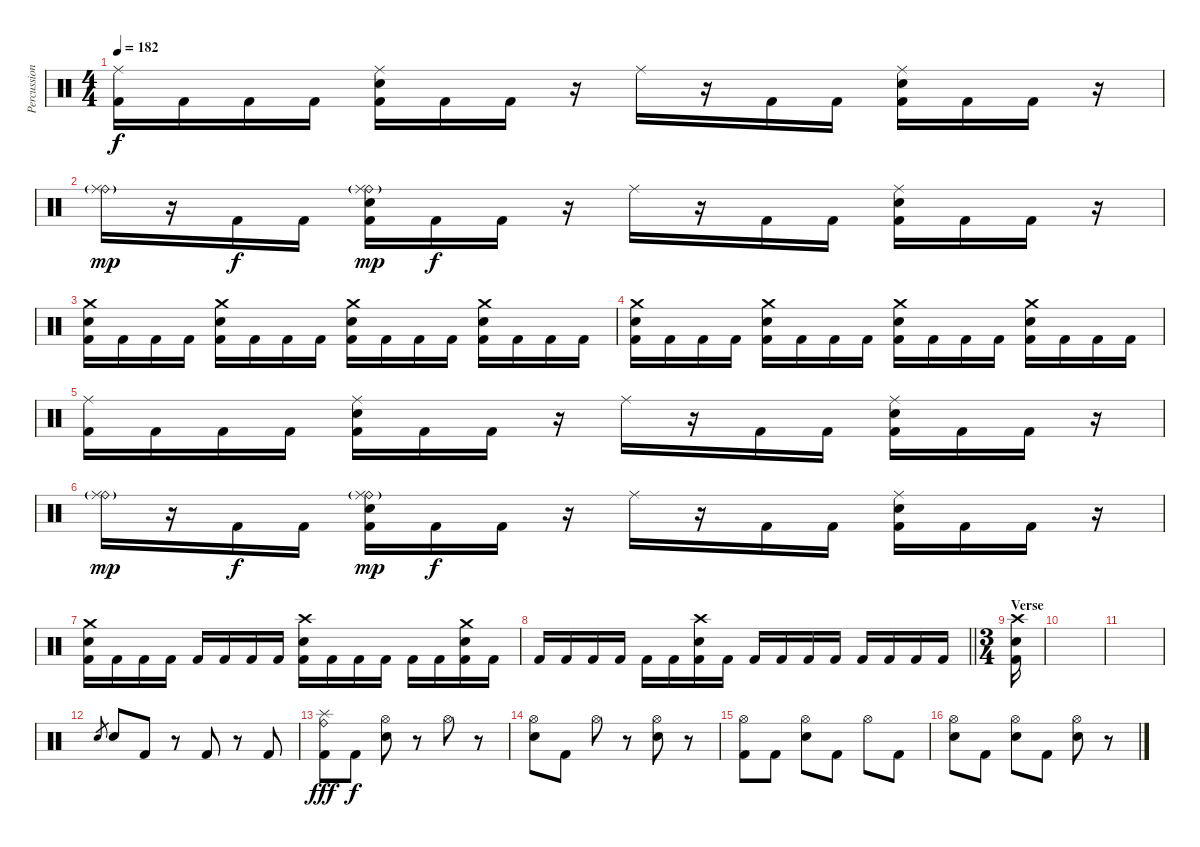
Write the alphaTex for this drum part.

\track ("Percussion" "Percussion") {instrument percussion}
\staff {score}
\articulation defaults
\ts (4 4)
\tempo 182
\clef neutral
\ks c
("Ride (middle)" "Kick (hit) 2").16{dy f} "Kick (hit) 2".16 "Kick (hit) 2".16 "Kick (hit) 2".16 ("Ride (middle)" "Electric Snare (hit)" "Kick (hit) 2").16 "Kick (hit) 2".16 "Kick (hit) 2".16 r.16 "Ride (middle)".16 r.16 "Kick (hit) 2".16 "Kick (hit) 2".16 ("Ride (middle)" "Electric Snare (hit)" "Kick (hit) 2").16 "Kick (hit) 2".16 "Kick (hit) 2".16 r.16 |
("Ride (bell)"{g} "Ride (middle)").16{dy mp} r.16 "Kick (hit) 2".16{dy f} "Kick (hit) 2".16 ("Ride (bell)"{g} "Ride (middle)" "Electric Snare (hit)" "Kick (hit) 2").16{dy mp} "Kick (hit) 2".16{dy f} "Kick (hit) 2".16 r.16 "Ride (middle)".16 r.16 "Kick (hit) 2".16 "Kick (hit) 2".16 ("Ride (middle)" "Electric Snare (hit)" "Kick (hit) 2").16 "Kick (hit) 2".16 "Kick (hit) 2".16 r.16 |
("Crash medium (hit)" "Electric Snare (hit)" "Kick (hit) 2").16 "Kick (hit) 2".16 "Kick (hit) 2".16 "Kick (hit) 2".16 ("Crash medium (hit)" "Electric Snare (hit)" "Kick (hit) 2").16 "Kick (hit) 2".16 "Kick (hit) 2".16 "Kick (hit) 2".16 ("Crash medium (hit)" "Electric Snare (hit)" "Kick (hit) 2").16 "Kick (hit) 2".16 "Kick (hit) 2".16 "Kick (hit) 2".16 ("Crash medium (hit)" "Electric Snare (hit)" "Kick (hit) 2").16 "Kick (hit) 2".16 "Kick (hit) 2".16 "Kick (hit) 2".16 |
("Crash medium (hit)" "Electric Snare (hit)" "Kick (hit) 2").16 "Kick (hit) 2".16 "Kick (hit) 2".16 "Kick (hit) 2".16 ("Crash medium (hit)" "Electric Snare (hit)" "Kick (hit) 2").16 "Kick (hit) 2".16 "Kick (hit) 2".16 "Kick (hit) 2".16 ("Crash medium (hit)" "Electric Snare (hit)" "Kick (hit) 2").16 "Kick (hit) 2".16 "Kick (hit) 2".16 "Kick (hit) 2".16 ("Crash medium (hit)" "Electric Snare (hit)" "Kick (hit) 2").16 "Kick (hit) 2".16 "Kick (hit) 2".16 "Kick (hit) 2".16 |
("Ride (middle)" "Kick (hit) 2").16 "Kick (hit) 2".16 "Kick (hit) 2".16 "Kick (hit) 2".16 ("Ride (middle)" "Electric Snare (hit)" "Kick (hit) 2").16 "Kick (hit) 2".16 "Kick (hit) 2".16 r.16 "Ride (middle)".16 r.16 "Kick (hit) 2".16 "Kick (hit) 2".16 ("Ride (middle)" "Electric Snare (hit)" "Kick (hit) 2").16 "Kick (hit) 2".16 "Kick (hit) 2".16 r.16 |
("Ride (bell)"{g} "Ride (middle)").16{dy mp} r.16 "Kick (hit) 2".16{dy f} "Kick (hit) 2".16 ("Ride (bell)"{g} "Ride (middle)" "Electric Snare (hit)" "Kick (hit) 2").16{dy mp} "Kick (hit) 2".16{dy f} "Kick (hit) 2".16 r.16 "Ride (middle)".16 r.16 "Kick (hit) 2".16 "Kick (hit) 2".16 ("Ride (middle)" "Electric Snare (hit)" "Kick (hit) 2").16 "Kick (hit) 2".16 "Kick (hit) 2".16 r.16 |
("Crash medium (hit)" "Electric Snare (hit)" "Kick (hit) 2").16 "Kick (hit) 2".16 "Kick (hit) 2".16 "Kick (hit) 2".16 "Kick (hit) 2".16 "Kick (hit) 2".16 "Kick (hit) 2".16 "Kick (hit) 2".16 ("Crash high (hit)" "Electric Snare (hit)" "Kick (hit) 2").16 "Kick (hit) 2".16 "Kick (hit) 2".16 "Kick (hit) 2".16 "Kick (hit) 2".16 "Kick (hit) 2".16 ("Crash medium (hit)" "Electric Snare (hit)" "Kick (hit) 2").16 "Kick (hit) 2".16 |
\barLineRight lightlight "Kick (hit) 2".16 "Kick (hit) 2".16 "Kick (hit) 2".16 "Kick (hit) 2".16 "Kick (hit) 2".16 "Kick (hit) 2".16
("Crash high (hit)" "Electric Snare (hit)" "Kick (hit) 2").16 "Kick (hit) 2".16 "Kick (hit) 2".16 "Kick (hit) 2".16 "Kick (hit) 2".16 "Kick (hit) 2".16 "Kick (hit) 2".16 "Kick (hit) 2".16 "Kick (hit) 2".16 "Kick (hit) 2".16 |
\ts (3 4)
\section ("" "Verse")
("Crash high (hit)" "Electric Snare (hit)" "Kick (hit) 2").16 |
|
|
"Electric Snare (hit)".8{gr} "Electric Snare (hit)".8 "Kick (hit) 2".8 r.8 "Kick (hit) 2".8 r.8 "Kick (hit) 2".8 |
("Splash (hit)" "Ride (bell)" "Kick (hit) 2").8{dy fff} "Kick (hit) 2".8{dy f} ("Hi-Hat (open)" "Electric Snare (hit)").8 r.8 "Hi-Hat (open)".8 r.8 |
("Hi-Hat (open)" "Electric Snare (hit)").8 "Kick (hit) 2".8 "Hi-Hat (open)".8 r.8 ("Hi-Hat (open)" "Electric Snare (hit)").8 r.8 |
("Hi-Hat (open)" "Kick (hit) 2").8 "Kick (hit) 2".8 ("Hi-Hat (open)" "Electric Snare (hit)").8 "Kick (hit) 2".8 "Hi-Hat (open)".8 "Kick (hit) 2".8 |
("Hi-Hat (open)" "Electric Snare (hit)").8 "Kick (hit) 2".8 ("Hi-Hat (open)" "Electric Snare (hit)").8 "Kick (hit) 2".8 ("Hi-Hat (open)" "Electric Snare (hit)").8 r.8
